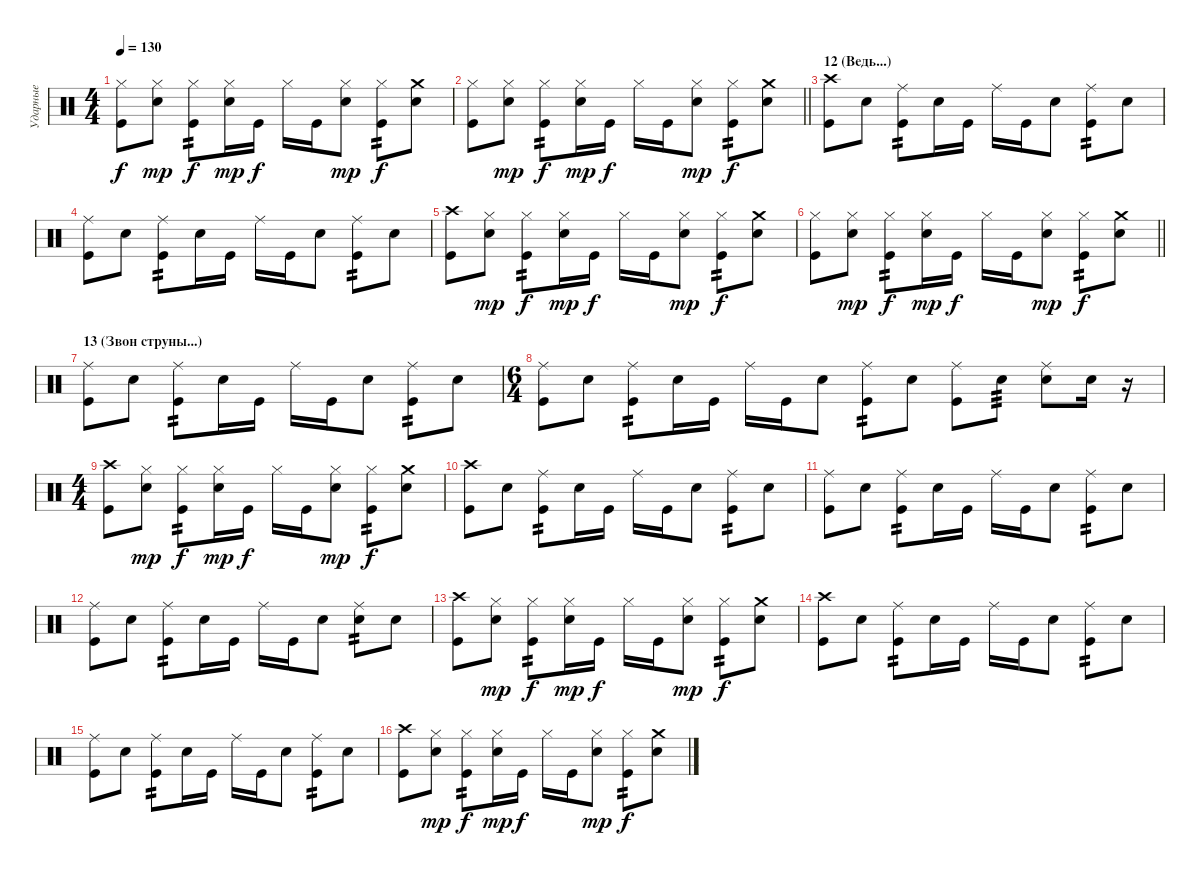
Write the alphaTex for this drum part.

\track ("Ударные" "Ударные") {instrument percussion}
\staff {score}
\articulation defaults
\ts (4 4)
\tempo 130
\clef neutral
\ks c
("Hi-Hat (closed)" "Kick (hit)").8{dy f} ("Hi-Hat (closed)" "Snare (hit) 2").8{dy mp} ("Hi-Hat (closed)" "Kick (hit)").8{tp 2 dy f} ("Hi-Hat (closed)" "Snare (hit) 2").16{dy mp} "Kick (hit)".16{dy f} "Hi-Hat (closed)".16 "Kick (hit)".16 ("Hi-Hat (closed)" "Snare (hit) 2").8{dy mp} ("Hi-Hat (closed)" "Kick (hit)").8{tp 2 dy f} ("Crash medium (hit)" "Snare (hit) 2").8 |
\barLineRight lightlight
("Hi-Hat (closed)" "Kick (hit)").8 ("Hi-Hat (closed)" "Snare (hit) 2").8{dy mp} ("Hi-Hat (closed)" "Kick (hit)").8{tp 2 dy f} ("Hi-Hat (closed)" "Snare (hit) 2").16{dy mp} "Kick (hit)".16{dy f} "Hi-Hat (closed)".16 "Kick (hit)".16 ("Hi-Hat (closed)" "Snare (hit) 2").8{dy mp} ("Hi-Hat (closed)" "Kick (hit)").8{tp 2 dy f} ("Crash medium (hit)" "Snare (hit) 2").8 |
\section ("" "12 (Ведь...)")
("Crash high (hit)" "Kick (hit)").8 "Snare (hit) 2".8 ("Ride (middle)" "Kick (hit)").8{tp 2} "Snare (hit) 2".16 "Kick (hit)".16 "Ride (middle)".16 "Kick (hit)".16 "Snare (hit) 2".8 ("Ride (middle)" "Kick (hit)").8{tp 2} "Snare (hit) 2".8 |
("Ride (middle)" "Kick (hit)").8 "Snare (hit) 2".8 ("Ride (middle)" "Kick (hit)").8{tp 2} "Snare (hit) 2".16 "Kick (hit)".16 "Ride (middle)".16 "Kick (hit)".16 "Snare (hit) 2".8 ("Ride (middle)" "Kick (hit)").8{tp 2} "Snare (hit) 2".8 |
("Crash high (hit)" "Kick (hit)").8 ("Hi-Hat (closed)" "Snare (hit) 2").8{dy mp} ("Hi-Hat (closed)" "Kick (hit)").8{tp 2 dy f} ("Hi-Hat (closed)" "Snare (hit) 2").16{dy mp} "Kick (hit)".16{dy f} "Hi-Hat (closed)".16 "Kick (hit)".16 ("Hi-Hat (closed)" "Snare (hit) 2").8{dy mp} ("Hi-Hat (closed)" "Kick (hit)").8{tp 2 dy f} ("Crash medium (hit)" "Snare (hit) 2").8 |
\barLineRight lightlight
("Hi-Hat (closed)" "Kick (hit)").8 ("Hi-Hat (closed)" "Snare (hit) 2").8{dy mp} ("Hi-Hat (closed)" "Kick (hit)").8{tp 2 dy f} ("Hi-Hat (closed)" "Snare (hit) 2").16{dy mp} "Kick (hit)".16{dy f} "Hi-Hat (closed)".16 "Kick (hit)".16 ("Hi-Hat (closed)" "Snare (hit) 2").8{dy mp} ("Hi-Hat (closed)" "Kick (hit)").8{tp 2 dy f} ("Crash medium (hit)" "Snare (hit) 2").8 |
\section ("" "13 (Звон струны...)")
("Ride (middle)" "Kick (hit)").8 "Snare (hit) 2".8 ("Ride (middle)" "Kick (hit)").8{tp 2} "Snare (hit) 2".16 "Kick (hit)".16 "Ride (middle)".16 "Kick (hit)".16 "Snare (hit) 2".8 ("Ride (middle)" "Kick (hit)").8{tp 2} "Snare (hit) 2".8 |
\ts (6 4)
("Ride (middle)" "Kick (hit)").8 "Snare (hit) 2".8 ("Ride (middle)" "Kick (hit)").8{tp 2} "Snare (hit) 2".16 "Kick (hit)".16 "Ride (middle)".16 "Kick (hit)".16 "Snare (hit) 2".8 ("Ride (middle)" "Kick (hit)").8{tp 2} "Snare (hit) 2".8 ("Ride (middle)" "Kick (hit)").8 "Snare (hit) 2".8{tp 3} ("Ride (middle)" "Snare (hit) 2").8 "Snare (hit) 2".16 r.16 |
\ts (4 4)
("Crash high (hit)" "Kick (hit)").8 ("Hi-Hat (closed)" "Snare (hit) 2").8{dy mp} ("Hi-Hat (closed)" "Kick (hit)").8{tp 2 dy f} ("Hi-Hat (closed)" "Snare (hit) 2").16{dy mp} "Kick (hit)".16{dy f} "Hi-Hat (closed)".16 "Kick (hit)".16 ("Hi-Hat (closed)" "Snare (hit) 2").8{dy mp} ("Hi-Hat (closed)" "Kick (hit)").8{tp 2 dy f} ("Crash medium (hit)" "Snare (hit) 2").8 |
("Crash high (hit)" "Kick (hit)").8 "Snare (hit) 2".8 ("Ride (middle)" "Kick (hit)").8{tp 2} "Snare (hit) 2".16 "Kick (hit)".16 "Ride (middle)".16 "Kick (hit)".16 "Snare (hit) 2".8 ("Ride (middle)" "Kick (hit)").8{tp 2} "Snare (hit) 2".8 |
("Ride (middle)" "Kick (hit)").8 "Snare (hit) 2".8 ("Ride (middle)" "Kick (hit)").8{tp 2} "Snare (hit) 2".16 "Kick (hit)".16 "Ride (middle)".16 "Kick (hit)".16 "Snare (hit) 2".8 ("Ride (middle)" "Kick (hit)").8{tp 2} "Snare (hit) 2".8 |
("Ride (middle)" "Kick (hit)").8 "Snare (hit) 2".8 ("Ride (middle)" "Kick (hit)").8{tp 2} "Snare (hit) 2".16 "Kick (hit)".16 "Ride (middle)".16 "Kick (hit)".16 "Snare (hit) 2".8 ("Ride (middle)" "Snare (hit) 2").8{tp 2} "Snare (hit) 2".8 |
("Crash high (hit)" "Kick (hit)").8 ("Hi-Hat (closed)" "Snare (hit) 2").8{dy mp} ("Hi-Hat (closed)" "Kick (hit)").8{tp 2 dy f} ("Hi-Hat (closed)" "Snare (hit) 2").16{dy mp} "Kick (hit)".16{dy f} "Hi-Hat (closed)".16 "Kick (hit)".16 ("Hi-Hat (closed)" "Snare (hit) 2").8{dy mp} ("Hi-Hat (closed)" "Kick (hit)").8{tp 2 dy f} ("Crash medium (hit)" "Snare (hit) 2").8 |
("Crash high (hit)" "Kick (hit)").8 "Snare (hit) 2".8 ("Ride (middle)" "Kick (hit)").8{tp 2} "Snare (hit) 2".16 "Kick (hit)".16 "Ride (middle)".16 "Kick (hit)".16 "Snare (hit) 2".8 ("Ride (middle)" "Kick (hit)").8{tp 2} "Snare (hit) 2".8 |
("Ride (middle)" "Kick (hit)").8 "Snare (hit) 2".8 ("Ride (middle)" "Kick (hit)").8{tp 2} "Snare (hit) 2".16 "Kick (hit)".16 "Ride (middle)".16 "Kick (hit)".16 "Snare (hit) 2".8 ("Ride (middle)" "Kick (hit)").8{tp 2} "Snare (hit) 2".8 |
("Crash high (hit)" "Kick (hit)").8 ("Hi-Hat (closed)" "Snare (hit) 2").8{dy mp} ("Hi-Hat (closed)" "Kick (hit)").8{tp 2 dy f} ("Hi-Hat (closed)" "Snare (hit) 2").16{dy mp} "Kick (hit)".16{dy f} "Hi-Hat (closed)".16 "Kick (hit)".16 ("Hi-Hat (closed)" "Snare (hit) 2").8{dy mp} ("Hi-Hat (closed)" "Kick (hit)").8{tp 2 dy f} ("Crash medium (hit)" "Snare (hit) 2").8
